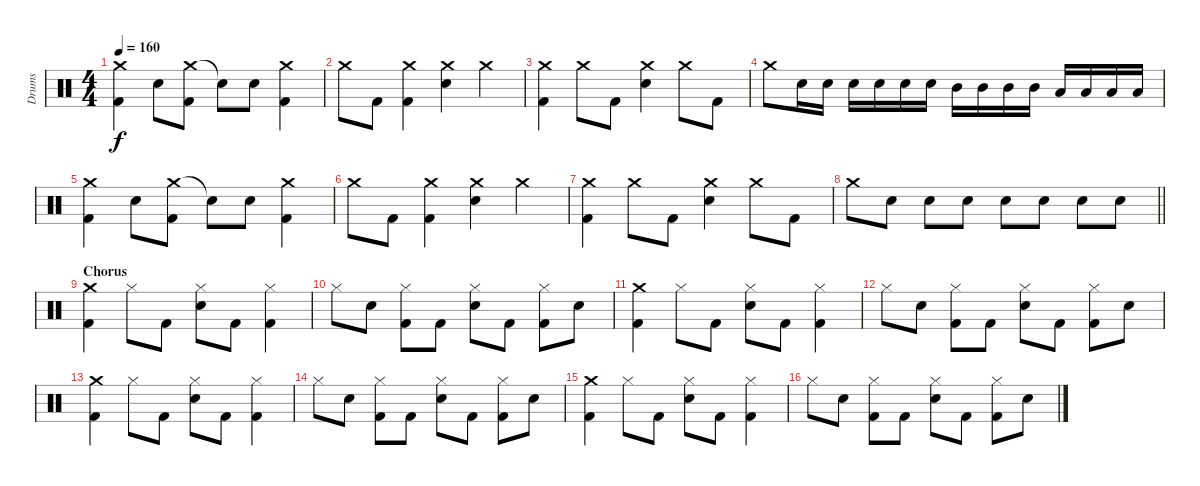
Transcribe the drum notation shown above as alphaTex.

\track ("Drums" "Drums") {instrument percussion}
\staff {score}
\articulation defaults
\ts (4 4)
\tempo 160
\clef neutral
\ks c
("Crash medium (hit)" "Kick (hit) 2").4{dy f} "Snare (hit) 2".8 ("Crash medium (hit)" "Kick (hit) 2").8 "Snare (hit)"{t}.8 "Snare (hit) 2".8 ("Crash medium (hit)" "Kick (hit) 2").4 |
"Crash medium (hit)".8 "Kick (hit) 2".8 ("Crash medium (hit)" "Kick (hit) 2").4 ("Crash medium (hit)" "Snare (hit) 2").4 "Crash medium (hit)".4 |
("Crash medium (hit)" "Kick (hit) 2").4 "Crash medium (hit)".8 "Kick (hit) 2".8 ("Crash medium (hit)" "Snare (hit) 2").4 "Crash medium (hit)".8 "Kick (hit) 2".8 |
"Crash medium (hit)".8 "Snare (hit) 2".16 "Snare (hit) 2".16 "Snare (hit) 2".16 "Snare (hit) 2".16 "Snare (hit) 2".16 "Snare (hit) 2".16 "Mid Tom (hit)".16 "Mid Tom (hit)".16 "Mid Tom (hit)".16 "Mid Tom (hit)".16 "Low Tom (hit)".16 "Low Tom (hit)".16 "Low Tom (hit)".16 "Low Tom (hit)".16 |
("Crash medium (hit)" "Kick (hit) 2").4 "Snare (hit) 2".8 ("Crash medium (hit)" "Kick (hit) 2").8 "Snare (hit)"{t}.8 "Snare (hit) 2".8 ("Crash medium (hit)" "Kick (hit) 2").4 |
"Crash medium (hit)".8 "Kick (hit) 2".8 ("Crash medium (hit)" "Kick (hit) 2").4 ("Crash medium (hit)" "Snare (hit) 2").4 "Crash medium (hit)".4 |
("Crash medium (hit)" "Kick (hit) 2").4 "Crash medium (hit)".8 "Kick (hit) 2".8 ("Crash medium (hit)" "Snare (hit) 2").4 "Crash medium (hit)".8 "Kick (hit) 2".8 |
\barLineRight lightlight "Crash medium (hit)".8 "Snare (hit) 2".8 "Snare (hit) 2".8 "Snare (hit) 2".8 "Snare (hit) 2".8 "Snare (hit) 2".8 "Snare (hit) 2".8 "Snare (hit) 2".8
|
\section ("" "Chorus")
("Crash medium (hit)" "Kick (hit) 2").4 "Hi-Hat (closed)".8 "Kick (hit) 2".8 ("Hi-Hat (closed)" "Snare (hit) 2").8 "Kick (hit) 2".8 ("Hi-Hat (closed)" "Kick (hit) 2").4 |
"Hi-Hat (closed)".8 "Snare (hit) 2".8 ("Hi-Hat (closed)" "Kick (hit) 2").8 "Kick (hit) 2".8 ("Hi-Hat (closed)" "Snare (hit) 2").8 "Kick (hit) 2".8 ("Hi-Hat (closed)" "Kick (hit) 2").8 "Snare (hit) 2".8 |
("Crash medium (hit)" "Kick (hit) 2").4 "Hi-Hat (closed)".8 "Kick (hit) 2".8 ("Hi-Hat (closed)" "Snare (hit) 2").8 "Kick (hit) 2".8 ("Hi-Hat (closed)" "Kick (hit) 2").4 |
"Hi-Hat (closed)".8 "Snare (hit) 2".8 ("Hi-Hat (closed)" "Kick (hit) 2").8 "Kick (hit) 2".8 ("Hi-Hat (closed)" "Snare (hit) 2").8 "Kick (hit) 2".8 ("Hi-Hat (closed)" "Kick (hit) 2").8 "Snare (hit) 2".8 |
("Crash medium (hit)" "Kick (hit) 2").4 "Hi-Hat (closed)".8 "Kick (hit) 2".8 ("Hi-Hat (closed)" "Snare (hit) 2").8 "Kick (hit) 2".8 ("Hi-Hat (closed)" "Kick (hit) 2").4 |
"Hi-Hat (closed)".8 "Snare (hit) 2".8 ("Hi-Hat (closed)" "Kick (hit) 2").8 "Kick (hit) 2".8 ("Hi-Hat (closed)" "Snare (hit) 2").8 "Kick (hit) 2".8 ("Hi-Hat (closed)" "Kick (hit) 2").8 "Snare (hit) 2".8 |
("Crash medium (hit)" "Kick (hit) 2").4 "Hi-Hat (closed)".8 "Kick (hit) 2".8 ("Hi-Hat (closed)" "Snare (hit) 2").8 "Kick (hit) 2".8 ("Hi-Hat (closed)" "Kick (hit) 2").4 |
"Hi-Hat (closed)".8 "Snare (hit) 2".8 ("Hi-Hat (closed)" "Kick (hit) 2").8 "Kick (hit) 2".8 ("Hi-Hat (closed)" "Snare (hit) 2").8 "Kick (hit) 2".8 ("Hi-Hat (closed)" "Kick (hit) 2").8 "Snare (hit) 2".8
